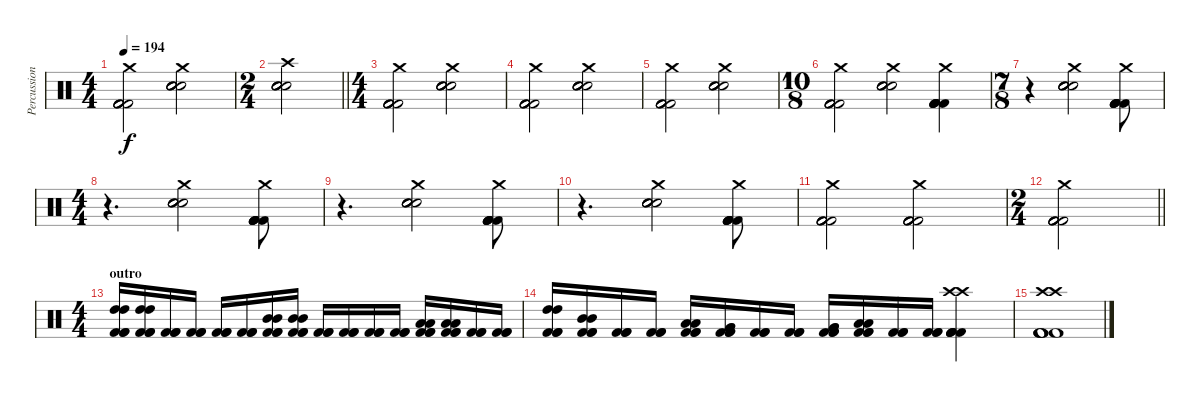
\track ("Percussion" "Percussion") {instrument percussion}
\staff {score}
\articulation defaults
\ts (4 4)
\tempo 194
\clef neutral
\ks c
("Kick (hit) 2" "Kick (hit) 2" "Kick (hit) 2" "Kick (hit) 2" "Kick (hit) 2" "Crash medium (hit)").2{dy f} ("Electric Snare (hit)" "Electric Snare (hit)" "Electric Snare (hit)" "Electric Snare (hit)" "Electric Snare (hit)" "Crash medium (hit)").2 |
\ts (2 4)
\barLineRight lightlight
("Electric Snare (hit)" "Electric Snare (hit)" "Electric Snare (hit)" "Electric Snare (hit)" "Electric Snare (hit)" "Crash high (hit)").2 |
\ts (4 4)
("Kick (hit) 2" "Kick (hit) 2" "Kick (hit) 2" "Kick (hit) 2" "Kick (hit) 2" "Crash medium (hit)").2 ("Electric Snare (hit)" "Electric Snare (hit)" "Electric Snare (hit)" "Electric Snare (hit)" "Electric Snare (hit)" "Crash medium (hit)").2 |
("Kick (hit) 2" "Kick (hit) 2" "Kick (hit) 2" "Kick (hit) 2" "Kick (hit) 2" "Crash medium (hit)").2 ("Electric Snare (hit)" "Electric Snare (hit)" "Electric Snare (hit)" "Electric Snare (hit)" "Electric Snare (hit)" "Crash medium (hit)").2 |
("Kick (hit) 2" "Kick (hit) 2" "Kick (hit) 2" "Kick (hit) 2" "Kick (hit) 2" "Crash medium (hit)").2 ("Electric Snare (hit)" "Electric Snare (hit)" "Electric Snare (hit)" "Electric Snare (hit)" "Electric Snare (hit)" "Crash medium (hit)").2 |
\ts (10 8)
("Kick (hit) 2" "Kick (hit) 2" "Kick (hit) 2" "Kick (hit) 2" "Kick (hit) 2" "Crash medium (hit)").2 ("Electric Snare (hit)" "Electric Snare (hit)" "Electric Snare (hit)" "Electric Snare (hit)" "Electric Snare (hit)" "Crash medium (hit)").2 ("Kick (hit) 2" "Kick (hit) 2" "Kick (hit) 2" "Kick (hit) 2" "Kick (hit) 2" "Crash medium (hit)").4 |
\ts (7 8)
r.4 ("Electric Snare (hit)" "Electric Snare (hit)" "Electric Snare (hit)" "Electric Snare (hit)" "Electric Snare (hit)" "Crash medium (hit)").2 ("Kick (hit) 2" "Kick (hit) 2" "Kick (hit) 2" "Kick (hit) 2" "Kick (hit) 2" "Crash medium (hit)").8 |
\ts (4 4)
r.4{d} ("Electric Snare (hit)" "Electric Snare (hit)" "Electric Snare (hit)" "Electric Snare (hit)" "Electric Snare (hit)" "Crash medium (hit)").2 ("Kick (hit) 2" "Kick (hit) 2" "Kick (hit) 2" "Kick (hit) 2" "Kick (hit) 2" "Crash medium (hit)").8 |
r.4{d} ("Electric Snare (hit)" "Electric Snare (hit)" "Electric Snare (hit)" "Electric Snare (hit)" "Electric Snare (hit)" "Crash medium (hit)").2 ("Kick (hit) 2" "Kick (hit) 2" "Kick (hit) 2" "Kick (hit) 2" "Kick (hit) 2" "Crash medium (hit)").8 |
r.4{d} ("Electric Snare (hit)" "Electric Snare (hit)" "Electric Snare (hit)" "Electric Snare (hit)" "Electric Snare (hit)" "Crash medium (hit)").2 ("Kick (hit) 2" "Kick (hit) 2" "Kick (hit) 2" "Kick (hit) 2" "Kick (hit) 2" "Crash medium (hit)").8 |
("Kick (hit) 2" "Kick (hit) 2" "Kick (hit) 2" "Kick (hit) 2" "Kick (hit) 2" "Crash medium (hit)").2 ("Kick (hit) 2" "Kick (hit) 2" "Kick (hit) 2" "Kick (hit) 2" "Kick (hit) 2" "Crash medium (hit)").2 |
\ts (2 4)
\barLineRight lightlight
("Kick (hit) 2" "Kick (hit) 2" "Kick (hit) 2" "Kick (hit) 2" "Kick (hit) 2" "Crash medium (hit)").2 |
\ts (4 4)
\section ("" "outro")
("Kick (hit) 2" "Kick (hit) 2" "Kick (hit) 2" "High Tom (hit)" "High Tom (hit)").16 ("Kick (hit) 2" "Kick (hit) 2" "Kick (hit) 2" "High Tom (hit)" "High Tom (hit)").16 ("Kick (hit) 2" "Kick (hit) 2" "Kick (hit) 2").16 ("Kick (hit) 2" "Kick (hit) 2" "Kick (hit) 2").16 ("Kick (hit) 2" "Kick (hit) 2" "Kick (hit) 2").16 ("Kick (hit) 2" "Kick (hit) 2" "Kick (hit) 2").16 ("Kick (hit) 2" "Kick (hit) 2" "Kick (hit) 2" "Mid Tom (hit)" "Mid Tom (hit)").16 ("Kick (hit) 2" "Kick (hit) 2" "Kick (hit) 2" "Mid Tom (hit)" "Mid Tom (hit)").16 ("Kick (hit) 2" "Kick (hit) 2" "Kick (hit) 2").16 ("Kick (hit) 2" "Kick (hit) 2" "Kick (hit) 2").16 ("Kick (hit) 2" "Kick (hit) 2" "Kick (hit) 2").16 ("Kick (hit) 2" "Kick (hit) 2" "Kick (hit) 2").16 ("Kick (hit) 2" "Kick (hit) 2" "Kick (hit) 2" "Low Tom (hit)" "Low Tom (hit)").16 ("Kick (hit) 2" "Kick (hit) 2" "Kick (hit) 2" "Low Tom (hit)" "Low Tom (hit)").16 ("Kick (hit) 2" "Kick (hit) 2" "Kick (hit) 2").16 ("Kick (hit) 2" "Kick (hit) 2" "Kick (hit) 2").16 |
("Kick (hit) 2" "Kick (hit) 2" "Kick (hit) 2" "High Tom (hit)" "High Tom (hit)").16 ("Kick (hit) 2" "Kick (hit) 2" "Kick (hit) 2" "Mid Tom (hit)" "Mid Tom (hit)").16 ("Kick (hit) 2" "Kick (hit) 2" "Kick (hit) 2").16 ("Kick (hit) 2" "Kick (hit) 2" "Kick (hit) 2").16 ("Kick (hit) 2" "Kick (hit) 2" "Kick (hit) 2" "Low Tom (hit)" "Low Tom (hit)").16 ("Kick (hit) 2" "Kick (hit) 2" "Kick (hit) 2" "Very Low Tom (hit)" "Very Low Tom (hit)").16 ("Kick (hit) 2" "Kick (hit) 2" "Kick (hit) 2").16 ("Kick (hit) 2" "Kick (hit) 2" "Kick (hit) 2").16 ("Kick (hit) 2" "Kick (hit) 2" "Kick (hit) 2" "Very Low Tom (hit)" "Very Low Tom (hit)").16 ("Kick (hit) 2" "Kick (hit) 2" "Kick (hit) 2" "Low Floor Tom (hit)" "Low Floor Tom (hit)").16 ("Kick (hit) 2" "Kick (hit) 2" "Kick (hit) 2").16 ("Kick (hit) 2" "Kick (hit) 2" "Kick (hit) 2").16 ("Kick (hit) 2" "Kick (hit) 2" "Kick (hit) 2" "Kick (hit) 2" "Crash high (hit)" "Crash high (hit)").4 |
("Kick (hit) 2" "Kick (hit) 2" "Kick (hit) 2" "Kick (hit) 2" "Crash high (hit)" "Crash high (hit)").1
